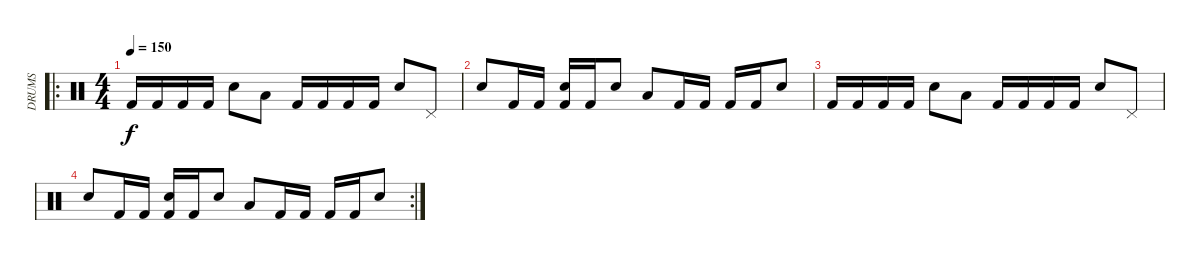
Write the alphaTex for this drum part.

\track ("DRUMS" "DRUMS") {instrument percussion}
\staff {score}
\articulation defaults
\ro
\ts (4 4)
\tempo 150
\clef neutral
\ks c "Kick (hit) 2".16{dy f} "Kick (hit) 2".16 "Kick (hit) 2".16 "Kick (hit) 2".16 "Electric Snare (hit)".8 "Low Tom (hit)".8 "Kick (hit) 2".16 "Kick (hit) 2".16 "Kick (hit) 2".16 "Kick (hit) 2".16 "Electric Snare (hit)".8 "Pedal Hi-Hat (hit)".8
|
"Electric Snare (hit)".8 "Kick (hit) 2".16 "Kick (hit) 2".16 ("Electric Snare (hit)" "Kick (hit) 2").16 "Kick (hit) 2".16 "Electric Snare (hit)".8 "Low Tom (hit)".8 "Kick (hit) 2".16 "Kick (hit) 2".16 "Kick (hit) 2".16 "Kick (hit) 2".16 "Electric Snare (hit)".8 |
"Kick (hit) 2".16 "Kick (hit) 2".16 "Kick (hit) 2".16 "Kick (hit) 2".16 "Electric Snare (hit)".8 "Low Tom (hit)".8 "Kick (hit) 2".16 "Kick (hit) 2".16 "Kick (hit) 2".16 "Kick (hit) 2".16 "Electric Snare (hit)".8 "Pedal Hi-Hat (hit)".8 |
\rc 2 "Electric Snare (hit)".8 "Kick (hit) 2".16 "Kick (hit) 2".16
("Electric Snare (hit)" "Kick (hit) 2").16 "Kick (hit) 2".16 "Electric Snare (hit)".8 "Low Tom (hit)".8 "Kick (hit) 2".16 "Kick (hit) 2".16 "Kick (hit) 2".16 "Kick (hit) 2".16 "Electric Snare (hit)".8
